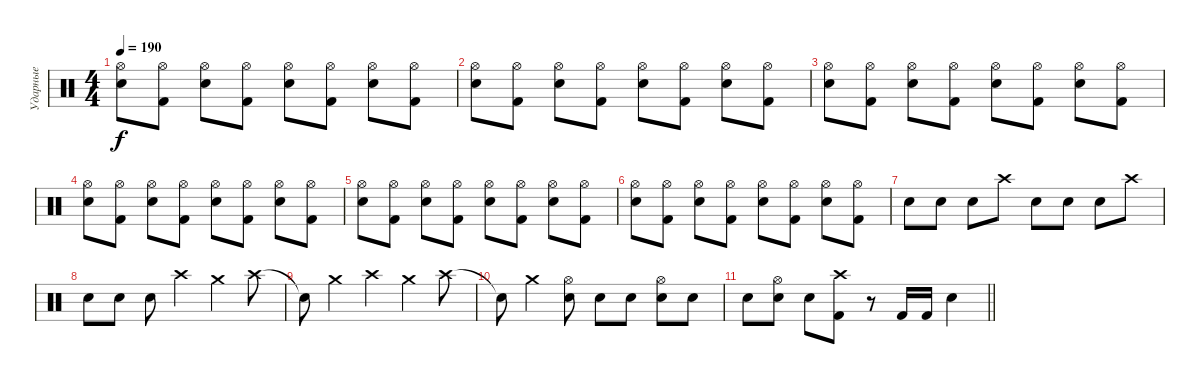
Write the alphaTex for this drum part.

\track ("Ударные" "Ударные") {instrument percussion}
\staff {score}
\articulation defaults
\ts (4 4)
\tempo 190
\clef neutral
\ks c
("Hi-Hat (open)" "Snare (hit) 2").8{dy f} ("Hi-Hat (open)" "Kick (hit) 2").8 ("Hi-Hat (open)" "Snare (hit) 2").8 ("Hi-Hat (open)" "Kick (hit) 2").8 ("Hi-Hat (open)" "Snare (hit) 2").8 ("Hi-Hat (open)" "Kick (hit) 2").8 ("Hi-Hat (open)" "Snare (hit) 2").8 ("Hi-Hat (open)" "Kick (hit) 2").8 |
("Hi-Hat (open)" "Snare (hit) 2").8 ("Hi-Hat (open)" "Kick (hit) 2").8 ("Hi-Hat (open)" "Snare (hit) 2").8 ("Hi-Hat (open)" "Kick (hit) 2").8 ("Hi-Hat (open)" "Snare (hit) 2").8 ("Hi-Hat (open)" "Kick (hit) 2").8 ("Hi-Hat (open)" "Snare (hit) 2").8 ("Hi-Hat (open)" "Kick (hit) 2").8 |
("Hi-Hat (open)" "Snare (hit) 2").8 ("Hi-Hat (open)" "Kick (hit) 2").8 ("Hi-Hat (open)" "Snare (hit) 2").8 ("Hi-Hat (open)" "Kick (hit) 2").8 ("Hi-Hat (open)" "Snare (hit) 2").8 ("Hi-Hat (open)" "Kick (hit) 2").8 ("Hi-Hat (open)" "Snare (hit) 2").8 ("Hi-Hat (open)" "Kick (hit) 2").8 |
("Hi-Hat (open)" "Snare (hit) 2").8 ("Hi-Hat (open)" "Kick (hit) 2").8 ("Hi-Hat (open)" "Snare (hit) 2").8 ("Hi-Hat (open)" "Kick (hit) 2").8 ("Hi-Hat (open)" "Snare (hit) 2").8 ("Hi-Hat (open)" "Kick (hit) 2").8 ("Hi-Hat (open)" "Snare (hit) 2").8 ("Hi-Hat (open)" "Kick (hit) 2").8 |
("Hi-Hat (open)" "Snare (hit) 2").8 ("Hi-Hat (open)" "Kick (hit) 2").8 ("Hi-Hat (open)" "Snare (hit) 2").8 ("Hi-Hat (open)" "Kick (hit) 2").8 ("Hi-Hat (open)" "Snare (hit) 2").8 ("Hi-Hat (open)" "Kick (hit) 2").8 ("Hi-Hat (open)" "Snare (hit) 2").8 ("Hi-Hat (open)" "Kick (hit) 2").8 |
("Hi-Hat (open)" "Snare (hit) 2").8 ("Hi-Hat (open)" "Kick (hit) 2").8 ("Hi-Hat (open)" "Snare (hit) 2").8 ("Hi-Hat (open)" "Kick (hit) 2").8 ("Hi-Hat (open)" "Snare (hit) 2").8 ("Hi-Hat (open)" "Kick (hit) 2").8 ("Hi-Hat (open)" "Snare (hit) 2").8 ("Hi-Hat (open)" "Kick (hit) 2").8 |
"Electric Snare (hit)".8 "Electric Snare (hit)".8 "Electric Snare (hit)".8 "Crash high (hit)".8 "Electric Snare (hit)".8 "Electric Snare (hit)".8 "Electric Snare (hit)".8 "Crash high (hit)".8 |
"Electric Snare (hit)".8 "Electric Snare (hit)".8 "Electric Snare (hit)".8 "Crash high (hit)".4 "Crash medium (hit)".4 "Crash high (hit)".8 |
"Snare (hit)"{t}.8 "Crash medium (hit)".4 "Crash high (hit)".4 "Crash medium (hit)".4 "Crash high (hit)".8 |
"Snare (hit)"{t}.8 "Crash medium (hit)".4 ("Hi-Hat (open)" "Snare (hit) 2").8 "Electric Snare (hit)".8 "Electric Snare (hit)".8 ("Hi-Hat (open)" "Snare (hit) 2").8 "Electric Snare (hit)".8 |
\barLineRight lightlight "Electric Snare (hit)".8
("Hi-Hat (open)" "Snare (hit) 2").8 "Electric Snare (hit)".8 ("Kick (hit) 2" "Crash high (hit)").8 r.8 "Kick (hit) 2".16 "Kick (hit) 2".16 "Electric Snare (hit)".4
